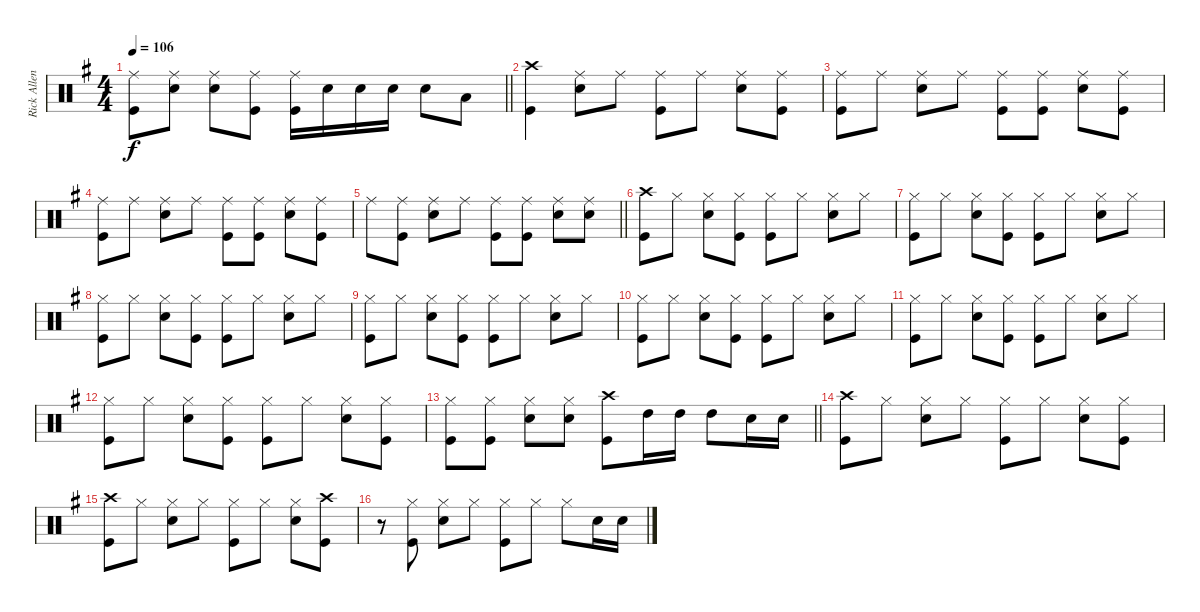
\track ("Rick Allen \"Thundergood\"" "Rick Allen") {instrument percussion}
\staff {score}
\articulation defaults
\ts (4 4)
\tempo 106
\clef neutral
\barLineRight lightlight
\ks eminor
("Ride (middle)" "Kick (hit)").8{dy f} ("Ride (middle)" "Snare (hit) 2").8 ("Ride (middle)" "Snare (hit) 2").8 ("Ride (middle)" "Kick (hit)").8 ("Ride (middle)" "Kick (hit)").16 "Snare (hit) 2".16 "Snare (hit) 2".16 "Snare (hit) 2".16 "Snare (hit) 2".8 "Low Tom (hit)".8 |
("Crash high (hit)" "Kick (hit)").4 ("Ride (middle)" "Snare (hit) 2").8 "Ride (middle)".8 ("Ride (middle)" "Kick (hit)").8 "Ride (middle)".8 ("Ride (middle)" "Snare (hit) 2").8 ("Ride (middle)" "Kick (hit)").8 |
("Ride (middle)" "Kick (hit)").8 "Ride (middle)".8 ("Ride (middle)" "Snare (hit) 2").8 "Ride (middle)".8 ("Ride (middle)" "Kick (hit)").8 ("Ride (middle)" "Kick (hit)").8 ("Ride (middle)" "Snare (hit) 2").8 ("Ride (middle)" "Kick (hit)").8 |
("Ride (middle)" "Kick (hit)").8 "Ride (middle)".8 ("Ride (middle)" "Snare (hit) 2").8 "Ride (middle)".8 ("Ride (middle)" "Kick (hit)").8 ("Ride (middle)" "Kick (hit)").8 ("Ride (middle)" "Snare (hit) 2").8 ("Ride (middle)" "Kick (hit)").8 |
\barLineRight lightlight "Ride (middle)".8
("Ride (middle)" "Kick (hit)").8 ("Ride (middle)" "Snare (hit) 2").8 "Ride (middle)".8 ("Ride (middle)" "Kick (hit)").8 ("Ride (middle)" "Kick (hit)").8 ("Ride (middle)" "Snare (hit) 2").8 ("Ride (middle)" "Snare (hit) 2").8 |
("Crash high (hit)" "Kick (hit)").8 "Hi-Hat (closed)".8 ("Hi-Hat (closed)" "Snare (hit) 2").8 ("Hi-Hat (closed)" "Kick (hit)").8 ("Hi-Hat (closed)" "Kick (hit)").8 "Hi-Hat (closed)".8 ("Hi-Hat (closed)" "Snare (hit) 2").8 "Hi-Hat (closed)".8 |
("Hi-Hat (closed)" "Kick (hit)").8 "Hi-Hat (closed)".8 ("Hi-Hat (closed)" "Snare (hit) 2").8 ("Hi-Hat (closed)" "Kick (hit)").8 ("Hi-Hat (closed)" "Kick (hit)").8 "Hi-Hat (closed)".8 ("Hi-Hat (closed)" "Snare (hit) 2").8 "Hi-Hat (closed)".8 |
("Hi-Hat (closed)" "Kick (hit)").8 "Hi-Hat (closed)".8 ("Hi-Hat (closed)" "Snare (hit) 2").8 ("Hi-Hat (closed)" "Kick (hit)").8 ("Hi-Hat (closed)" "Kick (hit)").8 "Hi-Hat (closed)".8 ("Hi-Hat (closed)" "Snare (hit) 2").8 "Hi-Hat (closed)".8 |
("Hi-Hat (closed)" "Kick (hit)").8 "Hi-Hat (closed)".8 ("Hi-Hat (closed)" "Snare (hit) 2").8 ("Hi-Hat (closed)" "Kick (hit)").8 ("Hi-Hat (closed)" "Kick (hit)").8 "Hi-Hat (closed)".8 ("Hi-Hat (closed)" "Snare (hit) 2").8 "Hi-Hat (closed)".8 |
("Hi-Hat (closed)" "Kick (hit)").8 "Hi-Hat (closed)".8 ("Hi-Hat (closed)" "Snare (hit) 2").8 ("Hi-Hat (closed)" "Kick (hit)").8 ("Hi-Hat (closed)" "Kick (hit)").8 "Hi-Hat (closed)".8 ("Hi-Hat (closed)" "Snare (hit) 2").8 "Hi-Hat (closed)".8 |
("Hi-Hat (closed)" "Kick (hit)").8 "Hi-Hat (closed)".8 ("Hi-Hat (closed)" "Snare (hit) 2").8 ("Hi-Hat (closed)" "Kick (hit)").8 ("Hi-Hat (closed)" "Kick (hit)").8 "Hi-Hat (closed)".8 ("Hi-Hat (closed)" "Snare (hit) 2").8 "Hi-Hat (closed)".8 |
("Hi-Hat (closed)" "Kick (hit)").8 "Hi-Hat (closed)".8 ("Hi-Hat (closed)" "Snare (hit) 2").8 ("Hi-Hat (closed)" "Kick (hit)").8 ("Hi-Hat (closed)" "Kick (hit)").8 "Hi-Hat (closed)".8 ("Hi-Hat (closed)" "Snare (hit) 2").8 ("Hi-Hat (closed)" "Kick (hit)").8 |
\barLineRight lightlight
("Hi-Hat (closed)" "Kick (hit)").8 ("Hi-Hat (closed)" "Kick (hit)").8 ("Hi-Hat (closed)" "Snare (hit) 2").8 ("Hi-Hat (closed)" "Snare (hit) 2").8 ("Crash high (hit)" "Kick (hit)").8 "High Tom (hit)".16 "High Tom (hit)".16 "High Tom (hit)".8 "Snare (hit) 2".16 "Snare (hit) 2".16 |
("Crash high (hit)" "Kick (hit)").8 "Hi-Hat (closed)".8 ("Hi-Hat (closed)" "Snare (hit) 2").8 "Hi-Hat (closed)".8 ("Hi-Hat (closed)" "Kick (hit)").8 "Hi-Hat (closed)".8 ("Hi-Hat (closed)" "Snare (hit) 2").8 ("Hi-Hat (closed)" "Kick (hit)").8 |
("Crash high (hit)" "Kick (hit)").8 "Hi-Hat (closed)".8 ("Hi-Hat (closed)" "Snare (hit) 2").8 "Hi-Hat (closed)".8 ("Hi-Hat (closed)" "Kick (hit)").8 "Hi-Hat (closed)".8 ("Hi-Hat (closed)" "Snare (hit) 2").8 ("Crash high (hit)" "Kick (hit)").8 |
r.8 ("Hi-Hat (closed)" "Kick (hit)").8 ("Hi-Hat (closed)" "Snare (hit) 2").8 "Hi-Hat (closed)".8 ("Hi-Hat (closed)" "Kick (hit)").8 "Hi-Hat (closed)".8 "Hi-Hat (closed)".8 "Snare (hit) 2".16 "Snare (hit) 2".16
